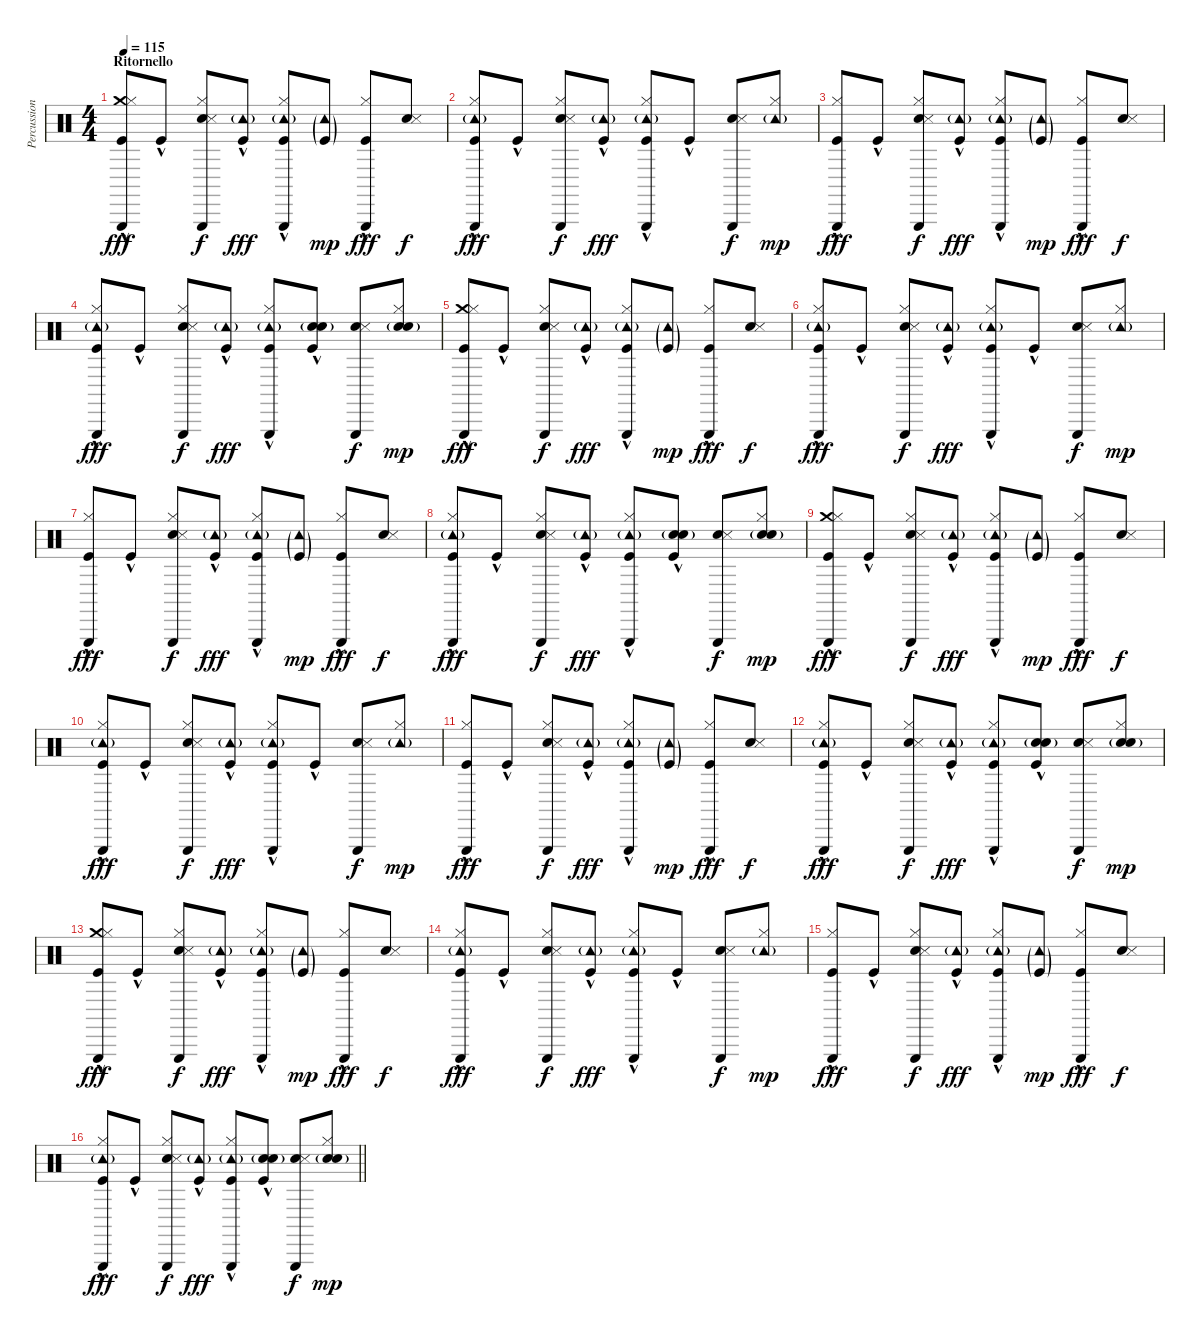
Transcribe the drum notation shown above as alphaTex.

\track ("Percussion" "Percussion") {instrument percussion}
\staff {score}
\articulation defaults
\ts (4 4)
\section ("" "Ritornello")
\tempo 115
\clef neutral
\ks c
("Triangle (hit)" "Crash medium (hit)" "Hi-Hat (closed)" "Kick (hit)"{hac}).8{dy fff} "Kick (hit)"{hac}.8 ("Hand Clap (hit)" "Snare (side stick) 3" "Hi-Hat (closed)" "Triangle (hit)").8{dy f} ("Tambourine (hit)"{g} "Kick (hit)"{hac}).8{dy fff} ("Triangle (hit)" "Hi-Hat (closed)" "Tambourine (hit)"{g} "Kick (hit)"{hac}).8 ("Tambourine (hit)"{g} "Kick (hit)"{g}).8{dy mp} ("Triangle (hit)" "Hi-Hat (closed)" "Kick (hit)"{hac}).8{dy fff} ("Hand Clap (hit)" "Snare (side stick) 3").8{dy f} |
("Triangle (hit)" "Hi-Hat (closed)" "Tambourine (hit)"{g} "Kick (hit)"{hac}).8{dy fff} "Kick (hit)"{hac}.8 ("Hand Clap (hit)" "Snare (side stick) 3" "Hi-Hat (closed)" "Triangle (hit)").8{dy f} ("Tambourine (hit)"{g} "Kick (hit)"{hac}).8{dy fff} ("Triangle (hit)" "Hi-Hat (closed)" "Tambourine (hit)"{g} "Kick (hit)"{hac}).8 "Kick (hit)"{hac}.8 ("Hand Clap (hit)" "Snare (side stick) 3" "Triangle (hit)").8{dy f} ("Hi-Hat (closed)" "Tambourine (hit)"{g}).8{dy mp} |
("Triangle (hit)" "Hi-Hat (closed)" "Kick (hit)"{hac}).8{dy fff} "Kick (hit)"{hac}.8 ("Hand Clap (hit)" "Snare (side stick) 3" "Hi-Hat (closed)" "Triangle (hit)").8{dy f} ("Tambourine (hit)"{g} "Kick (hit)"{hac}).8{dy fff} ("Triangle (hit)" "Hi-Hat (closed)" "Tambourine (hit)"{g} "Kick (hit)"{hac}).8 ("Tambourine (hit)"{g} "Kick (hit)"{g}).8{dy mp} ("Triangle (hit)" "Hi-Hat (closed)" "Kick (hit)"{hac}).8{dy fff} ("Hand Clap (hit)" "Snare (side stick) 3").8{dy f} |
("Triangle (hit)" "Hi-Hat (closed)" "Tambourine (hit)"{g} "Kick (hit)"{hac}).8{dy fff} "Kick (hit)"{hac}.8 ("Hand Clap (hit)" "Snare (side stick) 3" "Hi-Hat (closed)" "Triangle (hit)").8{dy f} ("Tambourine (hit)"{g} "Kick (hit)"{hac}).8{dy fff} ("Triangle (hit)" "Hi-Hat (closed)" "Tambourine (hit)"{g} "Kick (hit)"{hac}).8 ("Snare (hit) 2" "Electric Snare (hit)"{g} "Kick (hit)"{hac}).8 ("Hand Clap (hit)" "Snare (side stick) 3" "Triangle (hit)").8{dy f} ("Hi-Hat (closed)" "Snare (hit) 2" "Electric Snare (hit)"{g}).8{dy mp} |
("Triangle (hit)" "Crash medium (hit)" "Hi-Hat (closed)" "Kick (hit)"{hac}).8{dy fff} "Kick (hit)"{hac}.8 ("Hand Clap (hit)" "Snare (side stick) 3" "Hi-Hat (closed)" "Triangle (hit)").8{dy f} ("Tambourine (hit)"{g} "Kick (hit)"{hac}).8{dy fff} ("Triangle (hit)" "Hi-Hat (closed)" "Tambourine (hit)"{g} "Kick (hit)"{hac}).8 ("Tambourine (hit)"{g} "Kick (hit)"{g}).8{dy mp} ("Triangle (hit)" "Hi-Hat (closed)" "Kick (hit)"{hac}).8{dy fff} ("Hand Clap (hit)" "Snare (side stick) 3").8{dy f} |
("Triangle (hit)" "Hi-Hat (closed)" "Tambourine (hit)"{g} "Kick (hit)"{hac}).8{dy fff} "Kick (hit)"{hac}.8 ("Hand Clap (hit)" "Snare (side stick) 3" "Hi-Hat (closed)" "Triangle (hit)").8{dy f} ("Tambourine (hit)"{g} "Kick (hit)"{hac}).8{dy fff} ("Triangle (hit)" "Hi-Hat (closed)" "Tambourine (hit)"{g} "Kick (hit)"{hac}).8 "Kick (hit)"{hac}.8 ("Hand Clap (hit)" "Snare (side stick) 3" "Triangle (hit)").8{dy f} ("Hi-Hat (closed)" "Tambourine (hit)"{g}).8{dy mp} |
("Triangle (hit)" "Hi-Hat (closed)" "Kick (hit)"{hac}).8{dy fff} "Kick (hit)"{hac}.8 ("Hand Clap (hit)" "Snare (side stick) 3" "Hi-Hat (closed)" "Triangle (hit)").8{dy f} ("Tambourine (hit)"{g} "Kick (hit)"{hac}).8{dy fff} ("Triangle (hit)" "Hi-Hat (closed)" "Tambourine (hit)"{g} "Kick (hit)"{hac}).8 ("Tambourine (hit)"{g} "Kick (hit)"{g}).8{dy mp} ("Triangle (hit)" "Hi-Hat (closed)" "Kick (hit)"{hac}).8{dy fff} ("Hand Clap (hit)" "Snare (side stick) 3").8{dy f} |
("Triangle (hit)" "Hi-Hat (closed)" "Tambourine (hit)"{g} "Kick (hit)"{hac}).8{dy fff} "Kick (hit)"{hac}.8 ("Hand Clap (hit)" "Snare (side stick) 3" "Hi-Hat (closed)" "Triangle (hit)").8{dy f} ("Tambourine (hit)"{g} "Kick (hit)"{hac}).8{dy fff} ("Triangle (hit)" "Hi-Hat (closed)" "Tambourine (hit)"{g} "Kick (hit)"{hac}).8 ("Snare (hit) 2" "Electric Snare (hit)"{g} "Kick (hit)"{hac}).8 ("Hand Clap (hit)" "Snare (side stick) 3" "Triangle (hit)").8{dy f} ("Hi-Hat (closed)" "Snare (hit) 2" "Electric Snare (hit)"{g}).8{dy mp} |
("Triangle (hit)" "Crash medium (hit)" "Hi-Hat (closed)" "Kick (hit)"{hac}).8{dy fff} "Kick (hit)"{hac}.8 ("Hand Clap (hit)" "Snare (side stick) 3" "Hi-Hat (closed)" "Triangle (hit)").8{dy f} ("Tambourine (hit)"{g} "Kick (hit)"{hac}).8{dy fff} ("Triangle (hit)" "Hi-Hat (closed)" "Tambourine (hit)"{g} "Kick (hit)"{hac}).8 ("Tambourine (hit)"{g} "Kick (hit)"{g}).8{dy mp} ("Triangle (hit)" "Hi-Hat (closed)" "Kick (hit)"{hac}).8{dy fff} ("Hand Clap (hit)" "Snare (side stick) 3").8{dy f} |
("Triangle (hit)" "Hi-Hat (closed)" "Tambourine (hit)"{g} "Kick (hit)"{hac}).8{dy fff} "Kick (hit)"{hac}.8 ("Hand Clap (hit)" "Snare (side stick) 3" "Hi-Hat (closed)" "Triangle (hit)").8{dy f} ("Tambourine (hit)"{g} "Kick (hit)"{hac}).8{dy fff} ("Triangle (hit)" "Hi-Hat (closed)" "Tambourine (hit)"{g} "Kick (hit)"{hac}).8 "Kick (hit)"{hac}.8 ("Hand Clap (hit)" "Snare (side stick) 3" "Triangle (hit)").8{dy f} ("Hi-Hat (closed)" "Tambourine (hit)"{g}).8{dy mp} |
("Triangle (hit)" "Hi-Hat (closed)" "Kick (hit)"{hac}).8{dy fff} "Kick (hit)"{hac}.8 ("Hand Clap (hit)" "Snare (side stick) 3" "Hi-Hat (closed)" "Triangle (hit)").8{dy f} ("Tambourine (hit)"{g} "Kick (hit)"{hac}).8{dy fff} ("Triangle (hit)" "Hi-Hat (closed)" "Tambourine (hit)"{g} "Kick (hit)"{hac}).8 ("Tambourine (hit)"{g} "Kick (hit)"{g}).8{dy mp} ("Triangle (hit)" "Hi-Hat (closed)" "Kick (hit)"{hac}).8{dy fff} ("Hand Clap (hit)" "Snare (side stick) 3").8{dy f} |
("Triangle (hit)" "Hi-Hat (closed)" "Tambourine (hit)"{g} "Kick (hit)"{hac}).8{dy fff} "Kick (hit)"{hac}.8 ("Hand Clap (hit)" "Snare (side stick) 3" "Hi-Hat (closed)" "Triangle (hit)").8{dy f} ("Tambourine (hit)"{g} "Kick (hit)"{hac}).8{dy fff} ("Triangle (hit)" "Hi-Hat (closed)" "Tambourine (hit)"{g} "Kick (hit)"{hac}).8 ("Snare (hit) 2" "Electric Snare (hit)"{g} "Kick (hit)"{hac}).8 ("Hand Clap (hit)" "Snare (side stick) 3" "Triangle (hit)").8{dy f} ("Hi-Hat (closed)" "Snare (hit) 2" "Electric Snare (hit)"{g}).8{dy mp} |
("Triangle (hit)" "Crash medium (hit)" "Hi-Hat (closed)" "Kick (hit)"{hac}).8{dy fff} "Kick (hit)"{hac}.8 ("Hand Clap (hit)" "Snare (side stick) 3" "Hi-Hat (closed)" "Triangle (hit)").8{dy f} ("Tambourine (hit)"{g} "Kick (hit)"{hac}).8{dy fff} ("Triangle (hit)" "Hi-Hat (closed)" "Tambourine (hit)"{g} "Kick (hit)"{hac}).8 ("Tambourine (hit)"{g} "Kick (hit)"{g}).8{dy mp} ("Triangle (hit)" "Hi-Hat (closed)" "Kick (hit)"{hac}).8{dy fff} ("Hand Clap (hit)" "Snare (side stick) 3").8{dy f} |
("Triangle (hit)" "Hi-Hat (closed)" "Tambourine (hit)"{g} "Kick (hit)"{hac}).8{dy fff} "Kick (hit)"{hac}.8 ("Hand Clap (hit)" "Snare (side stick) 3" "Hi-Hat (closed)" "Triangle (hit)").8{dy f} ("Tambourine (hit)"{g} "Kick (hit)"{hac}).8{dy fff} ("Triangle (hit)" "Hi-Hat (closed)" "Tambourine (hit)"{g} "Kick (hit)"{hac}).8 "Kick (hit)"{hac}.8 ("Hand Clap (hit)" "Snare (side stick) 3" "Triangle (hit)").8{dy f} ("Hi-Hat (closed)" "Tambourine (hit)"{g}).8{dy mp} |
("Triangle (hit)" "Hi-Hat (closed)" "Kick (hit)"{hac}).8{dy fff} "Kick (hit)"{hac}.8 ("Hand Clap (hit)" "Snare (side stick) 3" "Hi-Hat (closed)" "Triangle (hit)").8{dy f} ("Tambourine (hit)"{g} "Kick (hit)"{hac}).8{dy fff} ("Triangle (hit)" "Hi-Hat (closed)" "Tambourine (hit)"{g} "Kick (hit)"{hac}).8 ("Tambourine (hit)"{g} "Kick (hit)"{g}).8{dy mp} ("Triangle (hit)" "Hi-Hat (closed)" "Kick (hit)"{hac}).8{dy fff} ("Hand Clap (hit)" "Snare (side stick) 3").8{dy f} |
\barLineRight lightlight
("Triangle (hit)" "Hi-Hat (closed)" "Tambourine (hit)"{g} "Kick (hit)"{hac}).8{dy fff} "Kick (hit)"{hac}.8 ("Hand Clap (hit)" "Snare (side stick) 3" "Hi-Hat (closed)" "Triangle (hit)").8{dy f} ("Tambourine (hit)"{g} "Kick (hit)"{hac}).8{dy fff} ("Triangle (hit)" "Hi-Hat (closed)" "Tambourine (hit)"{g} "Kick (hit)"{hac}).8 ("Snare (hit) 2" "Electric Snare (hit)"{g} "Kick (hit)"{hac}).8 ("Hand Clap (hit)" "Snare (side stick) 3" "Triangle (hit)").8{dy f} ("Hi-Hat (closed)" "Snare (hit) 2" "Electric Snare (hit)"{g}).8{dy mp}
